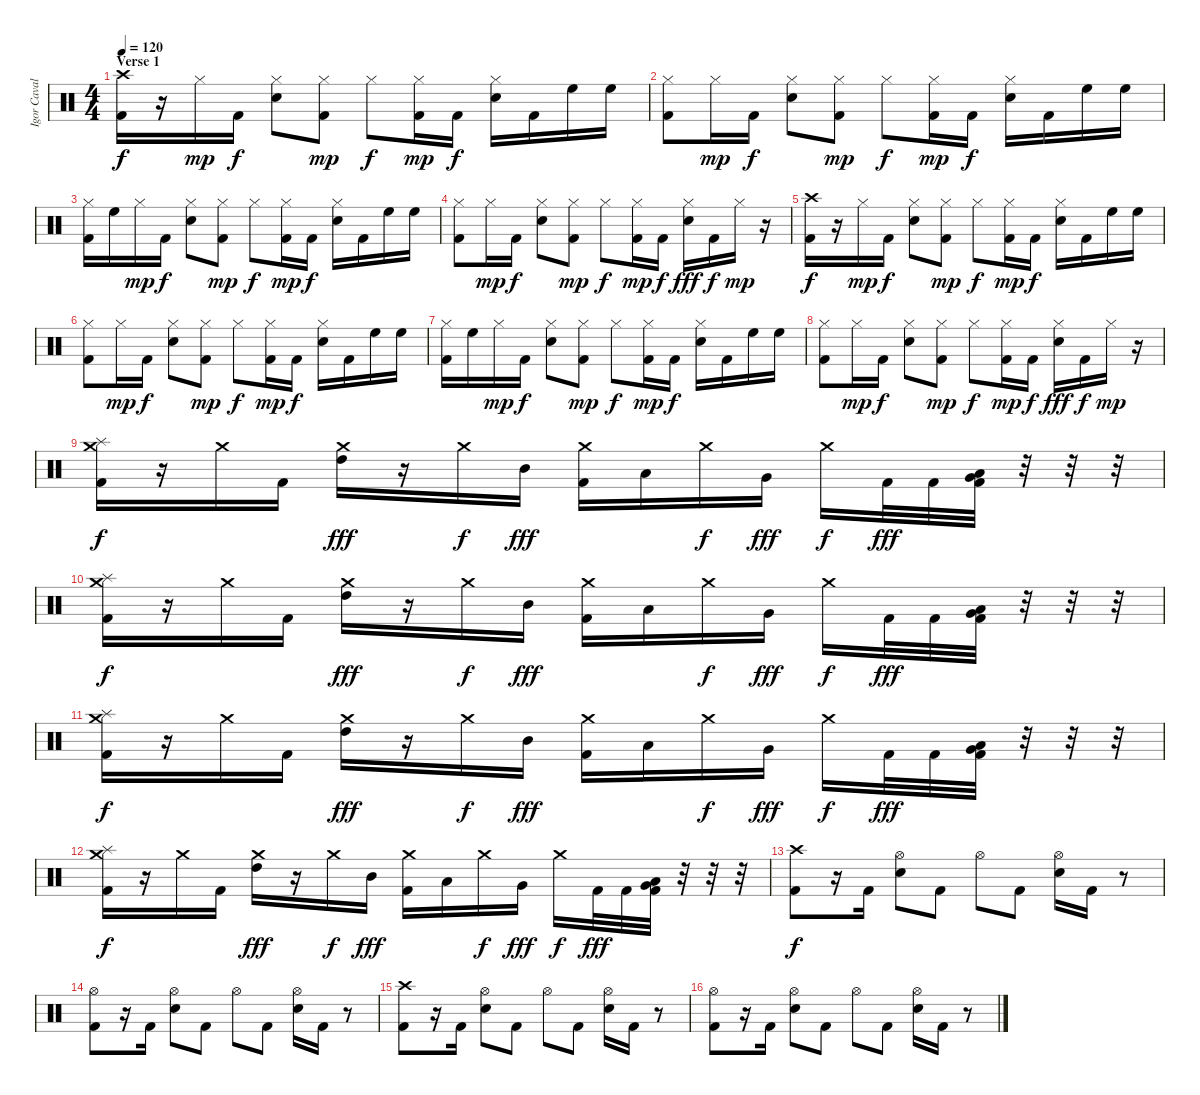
\track ("Igor Cavalera" "Igor Caval") {instrument percussion}
\staff {score}
\articulation defaults
\ts (4 4)
\section ("" "Verse 1")
\tempo 120
\clef neutral
\ks c
("Crash high (hit)" "Kick (hit) 2").16{dy f} r.16 "Hi-Hat (closed)".16{dy mp} "Kick (hit) 2".16{dy f} ("Hi-Hat (closed)" "Electric Snare (hit)").8 ("Hi-Hat (closed)" "Kick (hit) 2").8{dy mp} "Hi-Hat (closed)".8{dy f} ("Hi-Hat (closed)" "Kick (hit) 2").16{dy mp} "Kick (hit) 2".16{dy f} ("Hi-Hat (closed)" "Electric Snare (hit)").16 "Kick (hit) 2".16 "High Floor Tom (hit)".16 "High Floor Tom (hit)".16 |
("Hi-Hat (closed)" "Kick (hit) 2").8 "Hi-Hat (closed)".16{dy mp} "Kick (hit) 2".16{dy f} ("Hi-Hat (closed)" "Electric Snare (hit)").8 ("Hi-Hat (closed)" "Kick (hit) 2").8{dy mp} "Hi-Hat (closed)".8{dy f} ("Hi-Hat (closed)" "Kick (hit) 2").16{dy mp} "Kick (hit) 2".16{dy f} ("Hi-Hat (closed)" "Electric Snare (hit)").16 "Kick (hit) 2".16 "High Floor Tom (hit)".16 "High Floor Tom (hit)".16 |
("Hi-Hat (closed)" "Kick (hit) 2").16 "High Floor Tom (hit)".16 "Hi-Hat (closed)".16{dy mp} "Kick (hit) 2".16{dy f} ("Hi-Hat (closed)" "Electric Snare (hit)").8 ("Hi-Hat (closed)" "Kick (hit) 2").8{dy mp} "Hi-Hat (closed)".8{dy f} ("Hi-Hat (closed)" "Kick (hit) 2").16{dy mp} "Kick (hit) 2".16{dy f} ("Hi-Hat (closed)" "Electric Snare (hit)").16 "Kick (hit) 2".16 "High Floor Tom (hit)".16 "High Floor Tom (hit)".16 |
("Hi-Hat (closed)" "Kick (hit) 2").8 "Hi-Hat (closed)".16{dy mp} "Kick (hit) 2".16{dy f} ("Hi-Hat (closed)" "Electric Snare (hit)").8 ("Hi-Hat (closed)" "Kick (hit) 2").8{dy mp} "Hi-Hat (closed)".8{dy f} ("Hi-Hat (closed)" "Kick (hit) 2").16{dy mp} "Kick (hit) 2".16{dy f} ("Hi-Hat (closed)" "Electric Snare (hit)").16{dy fff} "Kick (hit) 2".16{dy f} "Hi-Hat (closed)".16{dy mp} r.16 |
("Crash high (hit)" "Kick (hit) 2").16{dy f} r.16 "Hi-Hat (closed)".16{dy mp} "Kick (hit) 2".16{dy f} ("Hi-Hat (closed)" "Electric Snare (hit)").8 ("Hi-Hat (closed)" "Kick (hit) 2").8{dy mp} "Hi-Hat (closed)".8{dy f} ("Hi-Hat (closed)" "Kick (hit) 2").16{dy mp} "Kick (hit) 2".16{dy f} ("Hi-Hat (closed)" "Electric Snare (hit)").16 "Kick (hit) 2".16 "High Floor Tom (hit)".16 "High Floor Tom (hit)".16 |
("Hi-Hat (closed)" "Kick (hit) 2").8 "Hi-Hat (closed)".16{dy mp} "Kick (hit) 2".16{dy f} ("Hi-Hat (closed)" "Electric Snare (hit)").8 ("Hi-Hat (closed)" "Kick (hit) 2").8{dy mp} "Hi-Hat (closed)".8{dy f} ("Hi-Hat (closed)" "Kick (hit) 2").16{dy mp} "Kick (hit) 2".16{dy f} ("Hi-Hat (closed)" "Electric Snare (hit)").16 "Kick (hit) 2".16 "High Floor Tom (hit)".16 "High Floor Tom (hit)".16 |
("Hi-Hat (closed)" "Kick (hit) 2").16 "High Floor Tom (hit)".16 "Hi-Hat (closed)".16{dy mp} "Kick (hit) 2".16{dy f} ("Hi-Hat (closed)" "Electric Snare (hit)").8 ("Hi-Hat (closed)" "Kick (hit) 2").8{dy mp} "Hi-Hat (closed)".8{dy f} ("Hi-Hat (closed)" "Kick (hit) 2").16{dy mp} "Kick (hit) 2".16{dy f} ("Hi-Hat (closed)" "Electric Snare (hit)").16 "Kick (hit) 2".16 "High Floor Tom (hit)".16 "High Floor Tom (hit)".16 |
("Hi-Hat (closed)" "Kick (hit) 2").8 "Hi-Hat (closed)".16{dy mp} "Kick (hit) 2".16{dy f} ("Hi-Hat (closed)" "Electric Snare (hit)").8 ("Hi-Hat (closed)" "Kick (hit) 2").8{dy mp} "Hi-Hat (closed)".8{dy f} ("Hi-Hat (closed)" "Kick (hit) 2").16{dy mp} "Kick (hit) 2".16{dy f} ("Hi-Hat (closed)" "Electric Snare (hit)").16{dy fff} "Kick (hit) 2".16{dy f} "Hi-Hat (closed)".16{dy mp} r.16 |
("Crash medium (hit)" "Kick (hit) 2" "Splash (hit)").16{dy f} r.16 "Crash medium (hit)".16 "Kick (hit) 2".16 ("Crash medium (hit)" "High Tom (hit)").16{dy fff} r.16 "Crash medium (hit)".16{dy f} "Mid Tom (hit)".16{dy fff} ("Crash medium (hit)" "Kick (hit) 2").16 "Low Tom (hit)".16 "Crash medium (hit)".16{dy f} "Very Low Tom (hit)".16{dy fff} "Crash medium (hit)".16{dy f} "Kick (hit) 2".32{dy fff} "Kick (hit) 2".32 ("Low Floor Tom (hit)" "Very Low Tom (hit)" "Kick (hit) 2").32 r.32 r.32 r.32 |
("Crash medium (hit)" "Kick (hit) 2" "Splash (hit)").16{dy f} r.16 "Crash medium (hit)".16 "Kick (hit) 2".16 ("Crash medium (hit)" "High Tom (hit)").16{dy fff} r.16 "Crash medium (hit)".16{dy f} "Mid Tom (hit)".16{dy fff} ("Crash medium (hit)" "Kick (hit) 2").16 "Low Tom (hit)".16 "Crash medium (hit)".16{dy f} "Very Low Tom (hit)".16{dy fff} "Crash medium (hit)".16{dy f} "Kick (hit) 2".32{dy fff} "Kick (hit) 2".32 ("Low Floor Tom (hit)" "Very Low Tom (hit)" "Kick (hit) 2").32 r.32 r.32 r.32 |
("Crash medium (hit)" "Kick (hit) 2" "Splash (hit)").16{dy f} r.16 "Crash medium (hit)".16 "Kick (hit) 2".16 ("Crash medium (hit)" "High Tom (hit)").16{dy fff} r.16 "Crash medium (hit)".16{dy f} "Mid Tom (hit)".16{dy fff} ("Crash medium (hit)" "Kick (hit) 2").16 "Low Tom (hit)".16 "Crash medium (hit)".16{dy f} "Very Low Tom (hit)".16{dy fff} "Crash medium (hit)".16{dy f} "Kick (hit) 2".32{dy fff} "Kick (hit) 2".32 ("Low Floor Tom (hit)" "Very Low Tom (hit)" "Kick (hit) 2").32 r.32 r.32 r.32 |
("Crash medium (hit)" "Kick (hit) 2" "Splash (hit)").16{dy f} r.16 "Crash medium (hit)".16 "Kick (hit) 2".16 ("Crash medium (hit)" "High Tom (hit)").16{dy fff} r.16 "Crash medium (hit)".16{dy f} "Mid Tom (hit)".16{dy fff} ("Crash medium (hit)" "Kick (hit) 2").16 "Low Tom (hit)".16 "Crash medium (hit)".16{dy f} "Very Low Tom (hit)".16{dy fff} "Crash medium (hit)".16{dy f} "Kick (hit) 2".32{dy fff} "Kick (hit) 2".32 ("Low Floor Tom (hit)" "Very Low Tom (hit)" "Kick (hit) 2").32 r.32 r.32 r.32 |
("Crash high (hit)" "Kick (hit) 2").8{dy f} r.16 "Kick (hit) 2".16 ("Hi-Hat (open)" "Electric Snare (hit)").8 "Kick (hit) 2".8 "Hi-Hat (open)".8 "Kick (hit) 2".8 ("Hi-Hat (open)" "Electric Snare (hit)").16 "Kick (hit) 2".16 r.8 |
("Hi-Hat (open)" "Kick (hit) 2").8 r.16 "Kick (hit) 2".16 ("Hi-Hat (open)" "Electric Snare (hit)").8 "Kick (hit) 2".8 "Hi-Hat (open)".8 "Kick (hit) 2".8 ("Hi-Hat (open)" "Electric Snare (hit)").16 "Kick (hit) 2".16 r.8 |
("Crash high (hit)" "Kick (hit) 2").8 r.16 "Kick (hit) 2".16 ("Hi-Hat (open)" "Electric Snare (hit)").8 "Kick (hit) 2".8 "Hi-Hat (open)".8 "Kick (hit) 2".8 ("Hi-Hat (open)" "Electric Snare (hit)").16 "Kick (hit) 2".16 r.8 |
("Hi-Hat (open)" "Kick (hit) 2").8 r.16 "Kick (hit) 2".16 ("Hi-Hat (open)" "Electric Snare (hit)").8 "Kick (hit) 2".8 "Hi-Hat (open)".8 "Kick (hit) 2".8 ("Hi-Hat (open)" "Electric Snare (hit)").16 "Kick (hit) 2".16 r.8
